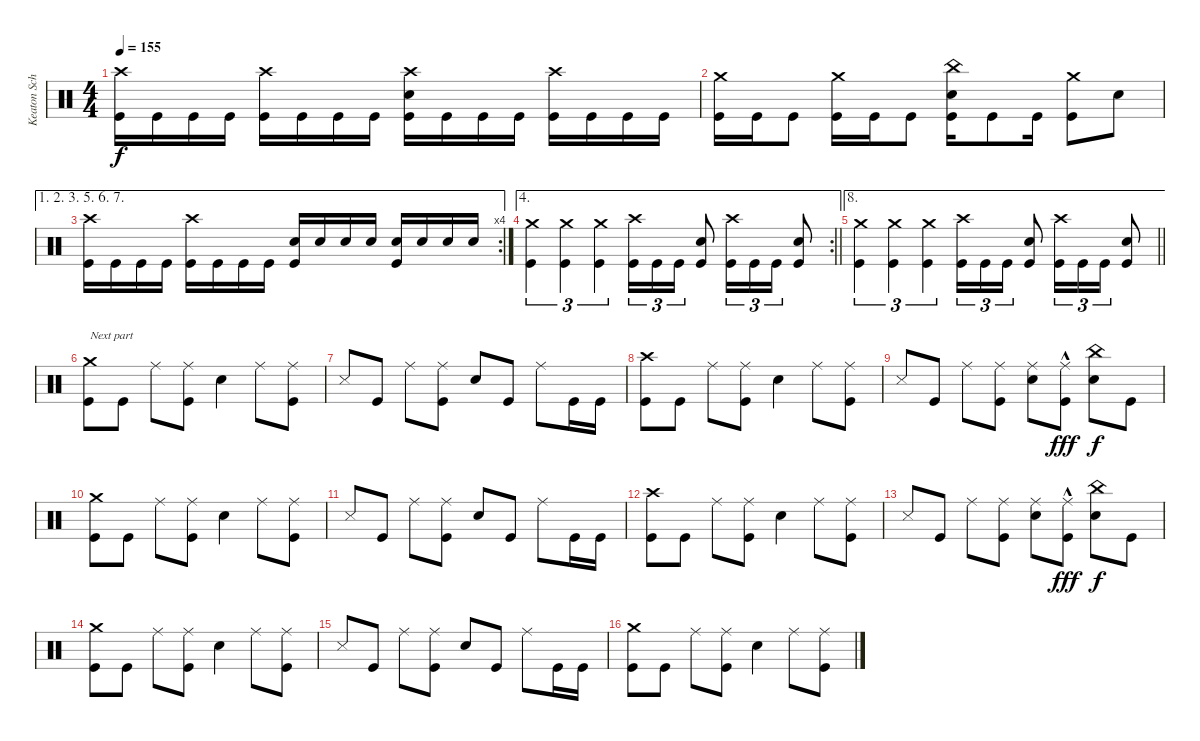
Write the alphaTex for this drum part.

\track ("Keaton Schluchter Drums" "Keaton Sch") {instrument percussion bank 20}
\staff {score}
\articulation defaults
\ts (4 4)
\tempo 155
\clef neutral
\ks c
("Crash high (hit)" "Kick (hit)").16{dy f} "Kick (hit)".16 "Kick (hit)".16 "Kick (hit)".16 ("Crash high (hit)" "Kick (hit)").16 "Kick (hit)".16 "Kick (hit)".16 "Kick (hit)".16 ("Crash high (hit)" "Electric Snare (hit)" "Kick (hit)").16 "Kick (hit)".16 "Kick (hit)".16 "Kick (hit)".16 ("Crash high (hit)" "Kick (hit)").16 "Kick (hit)".16 "Kick (hit)".16 "Kick (hit)".16 |
("Crash medium (hit)" "Kick (hit)").16 "Kick (hit)".16 "Kick (hit)".8 ("Crash medium (hit)" "Kick (hit)").16 "Kick (hit)".16 "Kick (hit)".8 ("China (hit)" "Electric Snare (hit)" "Kick (hit)").16 "Kick (hit)".8 "Kick (hit)".16 ("Crash medium (hit)" "Kick (hit)").8 "Electric Snare (hit)".8 |
\ae (1 2 3 5 6 7)
\rc 4
("Crash high (hit)" "Kick (hit)").16 "Kick (hit)".16 "Kick (hit)".16 "Kick (hit)".16 ("Crash high (hit)" "Kick (hit)").16 "Kick (hit)".16 "Kick (hit)".16 "Kick (hit)".16 ("Electric Snare (hit)" "Kick (hit)").16 "Electric Snare (hit)".16 "Electric Snare (hit)".16 "Electric Snare (hit)".16 ("Electric Snare (hit)" "Kick (hit)").16 "Electric Snare (hit)".16 "Electric Snare (hit)".16 "Electric Snare (hit)".16 |
\ae 4
\rc 2
\barLineRight lightlight
("Crash medium (hit)" "Kick (hit)").4{tu (3 2)} ("Crash medium (hit)" "Kick (hit)").4{tu (3 2)} ("Crash medium (hit)" "Kick (hit)").4{tu (3 2)} ("Crash high (hit)" "Kick (hit)").16{tu (3 2)} "Kick (hit)".16{tu (3 2)} "Kick (hit)".16{tu (3 2)} ("Electric Snare (hit)" "Kick (hit)").8 ("Crash high (hit)" "Kick (hit)").16{tu (3 2)} "Kick (hit)".16{tu (3 2)} "Kick (hit)".16{tu (3 2)} ("Electric Snare (hit)" "Kick (hit)").8 |
\ae 8
\barLineRight lightlight
("Crash medium (hit)" "Kick (hit)").4{tu (3 2)} ("Crash medium (hit)" "Kick (hit)").4{tu (3 2)} ("Crash medium (hit)" "Kick (hit)").4{tu (3 2)} ("Crash high (hit)" "Kick (hit)").16{tu (3 2)} "Kick (hit)".16{tu (3 2)} "Kick (hit)".16{tu (3 2)} ("Electric Snare (hit)" "Kick (hit)").8 ("Crash high (hit)" "Kick (hit)").16{tu (3 2)} "Kick (hit)".16{tu (3 2)} "Kick (hit)".16{tu (3 2)} ("Electric Snare (hit)" "Kick (hit)").8 |
("Crash medium (hit)" "Kick (hit)").8{txt "Next part"} "Kick (hit)".8 "Ride (middle)".8 ("Ride (middle)" "Kick (hit)").8 "Electric Snare (hit)".4 "Ride (middle)".8 ("Ride (middle)" "Kick (hit)").8 |
"Snare (side stick) 3".8 "Kick (hit)".8 "Ride (middle)".8 ("Ride (middle)" "Kick (hit)").8 "Electric Snare (hit)".8 "Kick (hit)".8 "Ride (middle)".8 "Kick (hit)".16 "Kick (hit)".16 |
("Crash high (hit)" "Kick (hit)").8 "Kick (hit)".8 "Ride (middle)".8 ("Ride (middle)" "Kick (hit)").8 "Electric Snare (hit)".4 "Ride (middle)".8 ("Ride (middle)" "Kick (hit)").8 |
"Snare (side stick) 3".8 "Kick (hit)".8 "Ride (middle)".8 ("Ride (middle)" "Kick (hit)").8 ("Ride (middle)" "Electric Snare (hit)").8 ("Ride (middle)"{hac} "Kick (hit)").8{dy fff} ("China (hit)" "Electric Snare (hit)").8{dy f} "Kick (hit)".8 |
("Crash medium (hit)" "Kick (hit)").8 "Kick (hit)".8 "Ride (middle)".8 ("Ride (middle)" "Kick (hit)").8 "Electric Snare (hit)".4 "Ride (middle)".8 ("Ride (middle)" "Kick (hit)").8 |
"Snare (side stick) 3".8 "Kick (hit)".8 "Ride (middle)".8 ("Ride (middle)" "Kick (hit)").8 "Electric Snare (hit)".8 "Kick (hit)".8 "Ride (middle)".8 "Kick (hit)".16 "Kick (hit)".16 |
("Crash high (hit)" "Kick (hit)").8 "Kick (hit)".8 "Ride (middle)".8 ("Ride (middle)" "Kick (hit)").8 "Electric Snare (hit)".4 "Ride (middle)".8 ("Ride (middle)" "Kick (hit)").8 |
"Snare (side stick) 3".8 "Kick (hit)".8 "Ride (middle)".8 ("Ride (middle)" "Kick (hit)").8 ("Ride (middle)" "Electric Snare (hit)").8 ("Ride (middle)"{hac} "Kick (hit)").8{dy fff} ("China (hit)" "Electric Snare (hit)").8{dy f} "Kick (hit)".8 |
("Crash medium (hit)" "Kick (hit)").8 "Kick (hit)".8 "Ride (middle)".8 ("Ride (middle)" "Kick (hit)").8 "Electric Snare (hit)".4 "Ride (middle)".8 ("Ride (middle)" "Kick (hit)").8 |
"Snare (side stick) 3".8 "Kick (hit)".8 "Ride (middle)".8 ("Ride (middle)" "Kick (hit)").8 "Electric Snare (hit)".8 "Kick (hit)".8 "Ride (middle)".8 "Kick (hit)".16 "Kick (hit)".16 |
("Crash medium (hit)" "Kick (hit)").8 "Kick (hit)".8 "Ride (middle)".8 ("Ride (middle)" "Kick (hit)").8 "Electric Snare (hit)".4 "Ride (middle)".8 ("Ride (middle)" "Kick (hit)").8
